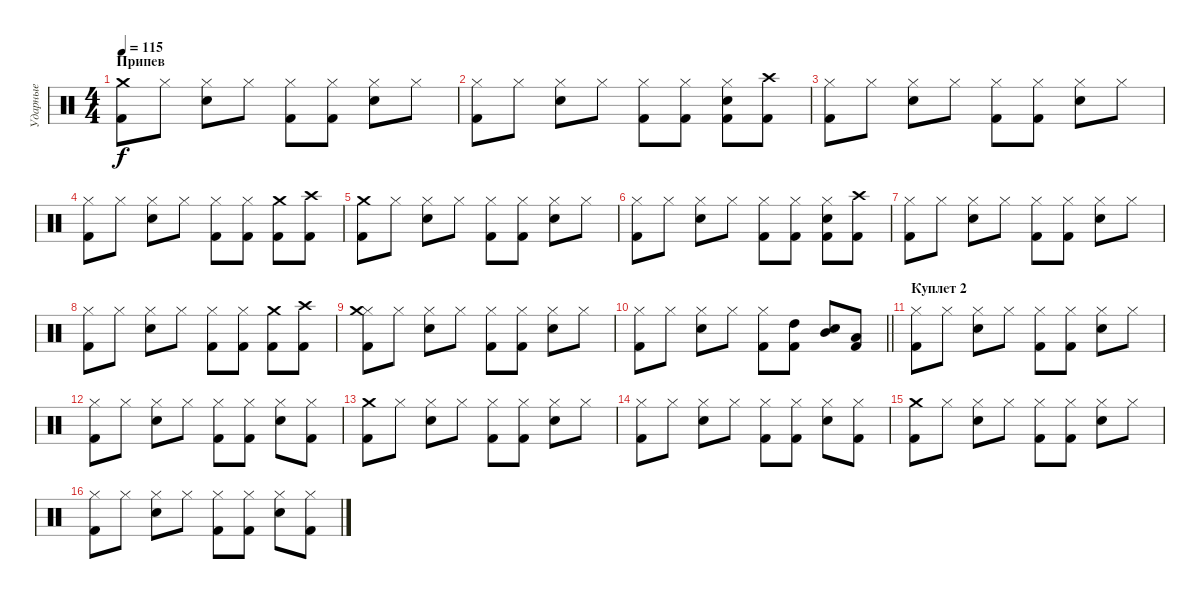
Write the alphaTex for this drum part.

\track ("Ударные" "Ударные") {instrument percussion}
\staff {score}
\articulation defaults
\ts (4 4)
\section ("" "Припев")
\tempo 115
\clef neutral
\ks c
("Kick (hit) 2" "Crash medium (hit)").8{dy f} "Hi-Hat (closed)".8 ("Snare (hit) 2" "Hi-Hat (closed)").8 "Hi-Hat (closed)".8 ("Kick (hit) 2" "Hi-Hat (closed)").8 ("Kick (hit) 2" "Hi-Hat (closed)").8 ("Snare (hit) 2" "Hi-Hat (closed)").8 "Hi-Hat (closed)".8 |
("Kick (hit) 2" "Hi-Hat (closed)").8 "Hi-Hat (closed)".8 ("Snare (hit) 2" "Hi-Hat (closed)").8 "Hi-Hat (closed)".8 ("Kick (hit) 2" "Hi-Hat (closed)").8 ("Kick (hit) 2" "Hi-Hat (closed)").8 ("Kick (hit) 2" "Snare (hit) 2" "Hi-Hat (closed)").8 ("Kick (hit) 2" "Crash high (hit)").8 |
("Kick (hit) 2" "Hi-Hat (closed)").8 "Hi-Hat (closed)".8 ("Snare (hit) 2" "Hi-Hat (closed)").8 "Hi-Hat (closed)".8 ("Kick (hit) 2" "Hi-Hat (closed)").8 ("Kick (hit) 2" "Hi-Hat (closed)").8 ("Snare (hit) 2" "Hi-Hat (closed)").8 "Hi-Hat (closed)".8 |
("Kick (hit) 2" "Hi-Hat (closed)").8 "Hi-Hat (closed)".8 ("Snare (hit) 2" "Hi-Hat (closed)").8 "Hi-Hat (closed)".8 ("Kick (hit) 2" "Hi-Hat (closed)").8 ("Kick (hit) 2" "Hi-Hat (closed)").8 ("Kick (hit) 2" "Crash medium (hit)").8 ("Kick (hit) 2" "Crash high (hit)").8 |
("Kick (hit) 2" "Crash medium (hit)").8 "Hi-Hat (closed)".8 ("Snare (hit) 2" "Hi-Hat (closed)").8 "Hi-Hat (closed)".8 ("Kick (hit) 2" "Hi-Hat (closed)").8 ("Kick (hit) 2" "Hi-Hat (closed)").8 ("Snare (hit) 2" "Hi-Hat (closed)").8 "Hi-Hat (closed)".8 |
("Kick (hit) 2" "Hi-Hat (closed)").8 "Hi-Hat (closed)".8 ("Snare (hit) 2" "Hi-Hat (closed)").8 "Hi-Hat (closed)".8 ("Kick (hit) 2" "Hi-Hat (closed)").8 ("Kick (hit) 2" "Hi-Hat (closed)").8 ("Kick (hit) 2" "Snare (hit) 2" "Hi-Hat (closed)").8 ("Kick (hit) 2" "Crash high (hit)").8 |
("Kick (hit) 2" "Hi-Hat (closed)").8 "Hi-Hat (closed)".8 ("Snare (hit) 2" "Hi-Hat (closed)").8 "Hi-Hat (closed)".8 ("Kick (hit) 2" "Hi-Hat (closed)").8 ("Kick (hit) 2" "Hi-Hat (closed)").8 ("Snare (hit) 2" "Hi-Hat (closed)").8 "Hi-Hat (closed)".8 |
("Kick (hit) 2" "Hi-Hat (closed)").8 "Hi-Hat (closed)".8 ("Snare (hit) 2" "Hi-Hat (closed)").8 "Hi-Hat (closed)".8 ("Kick (hit) 2" "Hi-Hat (closed)").8 ("Kick (hit) 2" "Hi-Hat (closed)").8 ("Kick (hit) 2" "Crash medium (hit)").8 ("Kick (hit) 2" "Crash high (hit)").8 |
("Kick (hit) 2" "Hi-Hat (closed)" "Crash medium (hit)").8 "Hi-Hat (closed)".8 ("Snare (hit) 2" "Hi-Hat (closed)").8 "Hi-Hat (closed)".8 ("Kick (hit) 2" "Hi-Hat (closed)").8 ("Kick (hit) 2" "Hi-Hat (closed)").8 ("Snare (hit) 2" "Hi-Hat (closed)").8 "Hi-Hat (closed)".8 |
\barLineRight lightlight
("Kick (hit) 2" "Hi-Hat (closed)").8 "Hi-Hat (closed)".8 ("Snare (hit) 2" "Hi-Hat (closed)").8 "Hi-Hat (closed)".8 ("Kick (hit) 2" "Hi-Hat (closed)").8 ("Kick (hit) 2" "High Tom (hit)").8 ("Snare (hit) 2" "Mid Tom (hit)").8 ("Kick (hit) 2" "Low Tom (hit)").8 |
\section ("" "Куплет 2")
("Kick (hit) 2" "Hi-Hat (closed)").8 "Hi-Hat (closed)".8 ("Snare (hit) 2" "Hi-Hat (closed)").8 "Hi-Hat (closed)".8 ("Kick (hit) 2" "Hi-Hat (closed)").8 ("Kick (hit) 2" "Hi-Hat (closed)").8 ("Snare (hit) 2" "Hi-Hat (closed)").8 "Hi-Hat (closed)".8 |
("Kick (hit) 2" "Hi-Hat (closed)").8 "Hi-Hat (closed)".8 ("Snare (hit) 2" "Hi-Hat (closed)").8 "Hi-Hat (closed)".8 ("Kick (hit) 2" "Hi-Hat (closed)").8 ("Kick (hit) 2" "Hi-Hat (closed)").8 ("Snare (hit) 2" "Hi-Hat (closed)").8 ("Kick (hit) 2" "Hi-Hat (closed)").8 |
("Kick (hit) 2" "Crash medium (hit)").8 "Hi-Hat (closed)".8 ("Snare (hit) 2" "Hi-Hat (closed)").8 "Hi-Hat (closed)".8 ("Kick (hit) 2" "Hi-Hat (closed)").8 ("Kick (hit) 2" "Hi-Hat (closed)").8 ("Snare (hit) 2" "Hi-Hat (closed)").8 "Hi-Hat (closed)".8 |
("Kick (hit) 2" "Hi-Hat (closed)").8 "Hi-Hat (closed)".8 ("Snare (hit) 2" "Hi-Hat (closed)").8 "Hi-Hat (closed)".8 ("Kick (hit) 2" "Hi-Hat (closed)").8 ("Kick (hit) 2" "Hi-Hat (closed)").8 ("Snare (hit) 2" "Hi-Hat (closed)").8 ("Kick (hit) 2" "Hi-Hat (closed)").8 |
("Kick (hit) 2" "Crash medium (hit)").8 "Hi-Hat (closed)".8 ("Snare (hit) 2" "Hi-Hat (closed)").8 "Hi-Hat (closed)".8 ("Kick (hit) 2" "Hi-Hat (closed)").8 ("Kick (hit) 2" "Hi-Hat (closed)").8 ("Snare (hit) 2" "Hi-Hat (closed)").8 "Hi-Hat (closed)".8 |
("Kick (hit) 2" "Hi-Hat (closed)").8 "Hi-Hat (closed)".8 ("Snare (hit) 2" "Hi-Hat (closed)").8 "Hi-Hat (closed)".8 ("Kick (hit) 2" "Hi-Hat (closed)").8 ("Kick (hit) 2" "Hi-Hat (closed)").8 ("Snare (hit) 2" "Hi-Hat (closed)").8 ("Kick (hit) 2" "Hi-Hat (closed)").8
